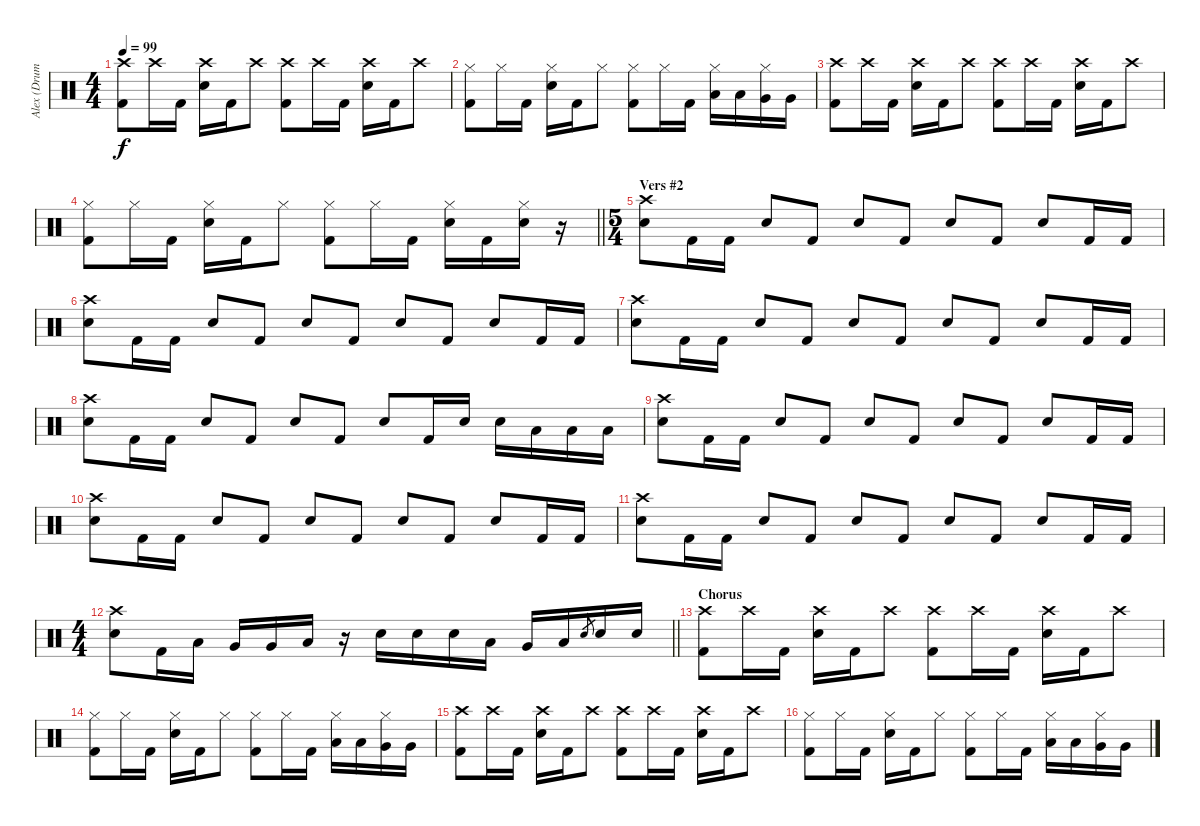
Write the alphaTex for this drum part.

\track ("Alex (Drums)" "Alex (Drum") {instrument percussion}
\staff {score}
\articulation defaults
\ts (4 4)
\tempo 99
\clef neutral
\ks c
("Crash high (hit)" "Kick (hit) 2").8{dy f} "Crash high (hit)".16 "Kick (hit) 2".16 ("Crash high (hit)" "Snare (hit) 2").16 "Kick (hit) 2".16 "Crash high (hit)".8 ("Crash high (hit)" "Kick (hit) 2").8 "Crash high (hit)".16 "Kick (hit) 2".16 ("Crash high (hit)" "Snare (hit) 2").16 "Kick (hit) 2".16 "Crash high (hit)".8 |
("Hi-Hat (closed)" "Kick (hit) 2").8 "Hi-Hat (closed)".16 "Kick (hit) 2".16 ("Hi-Hat (closed)" "Snare (hit) 2").16 "Kick (hit) 2".16 "Hi-Hat (closed)".8 ("Hi-Hat (closed)" "Kick (hit) 2").8 "Hi-Hat (closed)".16 "Kick (hit) 2".16 ("Hi-Hat (closed)" "Low Tom (hit)").16 "Low Tom (hit)".16 ("Hi-Hat (closed)" "Very Low Tom (hit)").16 "Very Low Tom (hit)".16 |
("Crash high (hit)" "Kick (hit) 2").8 "Crash high (hit)".16 "Kick (hit) 2".16 ("Crash high (hit)" "Snare (hit) 2").16 "Kick (hit) 2".16 "Crash high (hit)".8 ("Crash high (hit)" "Kick (hit) 2").8 "Crash high (hit)".16 "Kick (hit) 2".16 ("Crash high (hit)" "Snare (hit) 2").16 "Kick (hit) 2".16 "Crash high (hit)".8 |
\barLineRight lightlight
("Hi-Hat (closed)" "Kick (hit) 2").8 "Hi-Hat (closed)".16 "Kick (hit) 2".16 ("Hi-Hat (closed)" "Snare (hit) 2").16 "Kick (hit) 2".16 "Hi-Hat (closed)".8 ("Hi-Hat (closed)" "Kick (hit) 2").8 "Hi-Hat (closed)".16 "Kick (hit) 2".16 ("Hi-Hat (closed)" "Snare (hit) 2").16 "Kick (hit) 2".16 ("Hi-Hat (closed)" "Snare (hit) 2").16 r.16 |
\ts (5 4)
\section ("" "Vers #2")
("Crash high (hit)" "Snare (hit) 2").8 "Kick (hit) 2".16 "Kick (hit) 2".16 "Snare (hit) 2".8 "Kick (hit) 2".8 "Snare (hit) 2".8 "Kick (hit) 2".8 "Snare (hit) 2".8 "Kick (hit) 2".8 "Snare (hit) 2".8 "Kick (hit) 2".16 "Kick (hit) 2".16 |
("Crash high (hit)" "Snare (hit) 2").8 "Kick (hit) 2".16 "Kick (hit) 2".16 "Snare (hit) 2".8 "Kick (hit) 2".8 "Snare (hit) 2".8 "Kick (hit) 2".8 "Snare (hit) 2".8 "Kick (hit) 2".8 "Snare (hit) 2".8 "Kick (hit) 2".16 "Kick (hit) 2".16 |
("Crash high (hit)" "Snare (hit) 2").8 "Kick (hit) 2".16 "Kick (hit) 2".16 "Snare (hit) 2".8 "Kick (hit) 2".8 "Snare (hit) 2".8 "Kick (hit) 2".8 "Snare (hit) 2".8 "Kick (hit) 2".8 "Snare (hit) 2".8 "Kick (hit) 2".16 "Kick (hit) 2".16 |
("Crash high (hit)" "Snare (hit) 2").8 "Kick (hit) 2".16 "Kick (hit) 2".16 "Snare (hit) 2".8 "Kick (hit) 2".8 "Snare (hit) 2".8 "Kick (hit) 2".8 "Snare (hit) 2".8 "Kick (hit) 2".16 "Snare (hit) 2".16 "Snare (hit) 2".16 "Low Tom (hit)".16 "Low Tom (hit)".16 "Low Floor Tom (hit)".16 |
("Crash high (hit)" "Snare (hit) 2").8 "Kick (hit) 2".16 "Kick (hit) 2".16 "Snare (hit) 2".8 "Kick (hit) 2".8 "Snare (hit) 2".8 "Kick (hit) 2".8 "Snare (hit) 2".8 "Kick (hit) 2".8 "Snare (hit) 2".8 "Kick (hit) 2".16 "Kick (hit) 2".16 |
("Crash high (hit)" "Snare (hit) 2").8 "Kick (hit) 2".16 "Kick (hit) 2".16 "Snare (hit) 2".8 "Kick (hit) 2".8 "Snare (hit) 2".8 "Kick (hit) 2".8 "Snare (hit) 2".8 "Kick (hit) 2".8 "Snare (hit) 2".8 "Kick (hit) 2".16 "Kick (hit) 2".16 |
("Crash high (hit)" "Snare (hit) 2").8 "Kick (hit) 2".16 "Kick (hit) 2".16 "Snare (hit) 2".8 "Kick (hit) 2".8 "Snare (hit) 2".8 "Kick (hit) 2".8 "Snare (hit) 2".8 "Kick (hit) 2".8 "Snare (hit) 2".8 "Kick (hit) 2".16 "Kick (hit) 2".16 |
\ts (4 4)
\barLineRight lightlight
("Crash high (hit)" "Snare (hit) 2").8 "Kick (hit) 2".16 "Low Tom (hit)".16 "Very Low Tom (hit)".16 "Very Low Tom (hit)".16 "Low Tom (hit)".16 r.16 "Snare (hit) 2".16 "Snare (hit) 2".16 "Snare (hit) 2".16 "Low Tom (hit)".16 "Very Low Tom (hit)".16 "Low Tom (hit)".16 "Snare (hit) 2".8{gr} "Snare (hit) 2".16 "Snare (hit) 2".16 |
\section ("" "Chorus")
("Crash high (hit)" "Kick (hit) 2").8 "Crash high (hit)".16 "Kick (hit) 2".16 ("Crash high (hit)" "Snare (hit) 2").16 "Kick (hit) 2".16 "Crash high (hit)".8 ("Crash high (hit)" "Kick (hit) 2").8 "Crash high (hit)".16 "Kick (hit) 2".16 ("Crash high (hit)" "Snare (hit) 2").16 "Kick (hit) 2".16 "Crash high (hit)".8 |
("Hi-Hat (closed)" "Kick (hit) 2").8 "Hi-Hat (closed)".16 "Kick (hit) 2".16 ("Hi-Hat (closed)" "Snare (hit) 2").16 "Kick (hit) 2".16 "Hi-Hat (closed)".8 ("Hi-Hat (closed)" "Kick (hit) 2").8 "Hi-Hat (closed)".16 "Kick (hit) 2".16 ("Hi-Hat (closed)" "Low Tom (hit)").16 "Low Tom (hit)".16 ("Hi-Hat (closed)" "Very Low Tom (hit)").16 "Very Low Tom (hit)".16 |
("Crash high (hit)" "Kick (hit) 2").8 "Crash high (hit)".16 "Kick (hit) 2".16 ("Crash high (hit)" "Snare (hit) 2").16 "Kick (hit) 2".16 "Crash high (hit)".8 ("Crash high (hit)" "Kick (hit) 2").8 "Crash high (hit)".16 "Kick (hit) 2".16 ("Crash high (hit)" "Snare (hit) 2").16 "Kick (hit) 2".16 "Crash high (hit)".8 |
("Hi-Hat (closed)" "Kick (hit) 2").8 "Hi-Hat (closed)".16 "Kick (hit) 2".16 ("Hi-Hat (closed)" "Snare (hit) 2").16 "Kick (hit) 2".16 "Hi-Hat (closed)".8 ("Hi-Hat (closed)" "Kick (hit) 2").8 "Hi-Hat (closed)".16 "Kick (hit) 2".16 ("Hi-Hat (closed)" "Low Tom (hit)").16 "Low Tom (hit)".16 ("Hi-Hat (closed)" "Very Low Tom (hit)").16 "Very Low Tom (hit)".16
